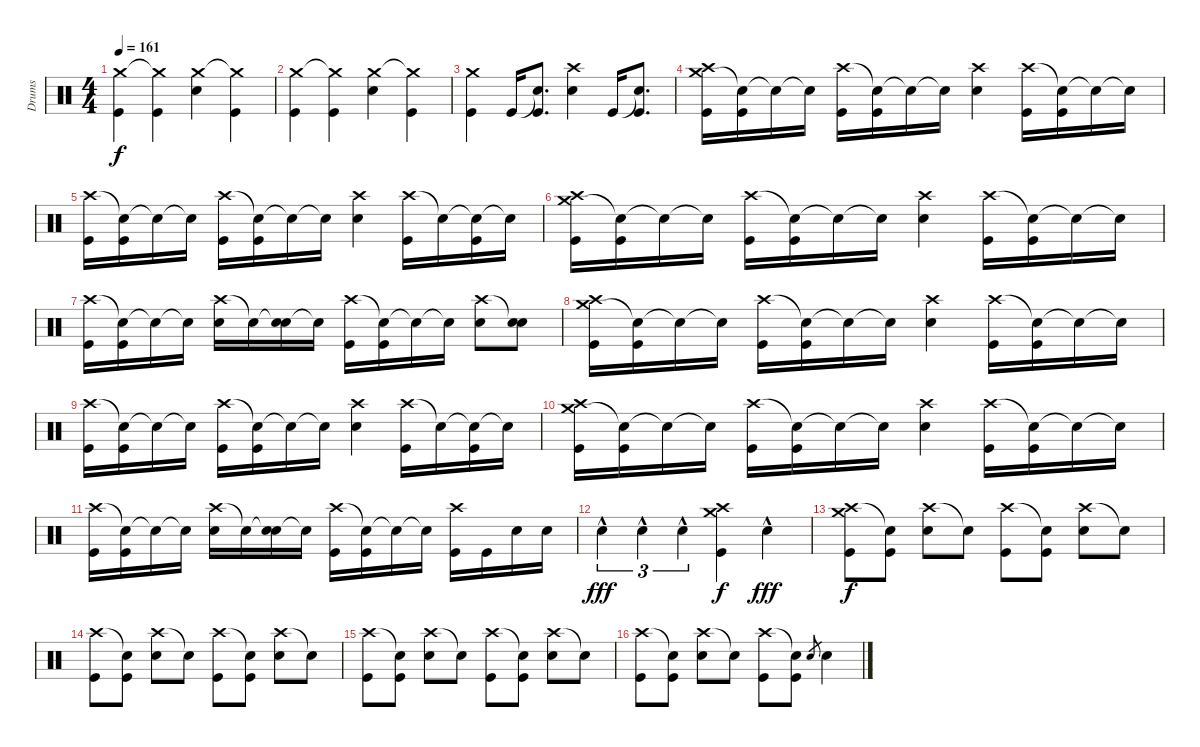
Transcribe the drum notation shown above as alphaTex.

\track ("Drums" "Drums") {instrument percussion}
\staff {score}
\articulation defaults
\ts (4 4)
\tempo 161
\clef neutral
\ks c
("Crash medium (hit)" "Kick (hit)").4{dy f} ("Crash medium (hit)"{t} "Kick (hit)").4 ("Crash medium (hit)" "Snare (hit) 2").4 ("Crash medium (hit)"{t} "Kick (hit)").4 |
("Crash medium (hit)" "Kick (hit)").4 ("Crash medium (hit)"{t} "Kick (hit)").4 ("Crash medium (hit)" "Snare (hit) 2").4 ("Crash medium (hit)"{t} "Kick (hit)").4 |
("Crash medium (hit)" "Kick (hit)").4 "Kick (hit)".16 ("Snare (hit)"{t} "Kick (hit)").8{d} ("Crash high (hit)" "Snare (hit) 2").4 "Kick (hit)".16 ("Snare (hit)"{t} "Kick (hit)").8{d} |
("Crash medium (hit)" "Crash high (hit)" "Kick (hit)").16 ("Snare (hit)"{t} "Kick (hit)").16 "Snare (hit)"{t}.16 "Snare (hit)"{t}.16 ("Crash high (hit)" "Kick (hit)").16 ("Snare (hit)"{t} "Kick (hit)").16 "Snare (hit)"{t}.16 "Snare (hit)"{t}.16 ("Crash high (hit)" "Snare (hit) 2").4 ("Crash high (hit)" "Kick (hit)").16 ("Snare (hit)"{t} "Kick (hit)").16 "Snare (hit)"{t}.16 "Snare (hit)"{t}.16 |
("Crash high (hit)" "Kick (hit)").16 ("Snare (hit)"{t} "Kick (hit)").16 "Snare (hit)"{t}.16 "Snare (hit)"{t}.16 ("Crash high (hit)" "Kick (hit)").16 ("Snare (hit)"{t} "Kick (hit)").16 "Snare (hit)"{t}.16 "Snare (hit)"{t}.16 ("Crash high (hit)" "Snare (hit) 2").4 ("Crash high (hit)" "Kick (hit)").16 "Snare (hit)"{t}.16 ("Snare (hit)"{t} "Kick (hit)").16 "Snare (hit)"{t}.16 |
("Crash medium (hit)" "Crash high (hit)" "Kick (hit)").16 ("Snare (hit)"{t} "Kick (hit)").16 "Snare (hit)"{t}.16 "Snare (hit)"{t}.16 ("Crash high (hit)" "Kick (hit)").16 ("Snare (hit)"{t} "Kick (hit)").16 "Snare (hit)"{t}.16 "Snare (hit)"{t}.16 ("Crash high (hit)" "Snare (hit) 2").4 ("Crash high (hit)" "Kick (hit)").16 ("Snare (hit)"{t} "Kick (hit)").16 "Snare (hit)"{t}.16 "Snare (hit)"{t}.16 |
("Crash high (hit)" "Kick (hit)").16 ("Snare (hit)"{t} "Kick (hit)").16 "Snare (hit)"{t}.16 "Snare (hit)"{t}.16 ("Crash high (hit)" "Snare (hit) 2").16 "Snare (hit)"{t}.16 ("Snare (hit)"{t} "Snare (hit) 2").16 "Snare (hit)"{t}.16 ("Crash high (hit)" "Kick (hit)").16 ("Snare (hit)"{t} "Kick (hit)").16 "Snare (hit)"{t}.16 "Snare (hit)"{t}.16 ("Crash high (hit)" "Snare (hit) 2").8 ("Snare (hit)"{t} "Snare (hit) 2").8 |
("Crash medium (hit)" "Crash high (hit)" "Kick (hit)").16 ("Snare (hit)"{t} "Kick (hit)").16 "Snare (hit)"{t}.16 "Snare (hit)"{t}.16 ("Crash high (hit)" "Kick (hit)").16 ("Snare (hit)"{t} "Kick (hit)").16 "Snare (hit)"{t}.16 "Snare (hit)"{t}.16 ("Crash high (hit)" "Snare (hit) 2").4 ("Crash high (hit)" "Kick (hit)").16 ("Snare (hit)"{t} "Kick (hit)").16 "Snare (hit)"{t}.16 "Snare (hit)"{t}.16 |
("Crash high (hit)" "Kick (hit)").16 ("Snare (hit)"{t} "Kick (hit)").16 "Snare (hit)"{t}.16 "Snare (hit)"{t}.16 ("Crash high (hit)" "Kick (hit)").16 ("Snare (hit)"{t} "Kick (hit)").16 "Snare (hit)"{t}.16 "Snare (hit)"{t}.16 ("Crash high (hit)" "Snare (hit) 2").4 ("Crash high (hit)" "Kick (hit)").16 "Snare (hit)"{t}.16 ("Snare (hit)"{t} "Kick (hit)").16 "Snare (hit)"{t}.16 |
("Crash medium (hit)" "Crash high (hit)" "Kick (hit)").16 ("Snare (hit)"{t} "Kick (hit)").16 "Snare (hit)"{t}.16 "Snare (hit)"{t}.16 ("Crash high (hit)" "Kick (hit)").16 ("Snare (hit)"{t} "Kick (hit)").16 "Snare (hit)"{t}.16 "Snare (hit)"{t}.16 ("Crash high (hit)" "Snare (hit) 2").4 ("Crash high (hit)" "Kick (hit)").16 ("Snare (hit)"{t} "Kick (hit)").16 "Snare (hit)"{t}.16 "Snare (hit)"{t}.16 |
("Crash high (hit)" "Kick (hit)").16 ("Snare (hit)"{t} "Kick (hit)").16 "Snare (hit)"{t}.16 "Snare (hit)"{t}.16 ("Crash high (hit)" "Snare (hit) 2").16 "Snare (hit)"{t}.16 ("Snare (hit)"{t} "Snare (hit) 2").16 "Snare (hit)"{t}.16 ("Crash high (hit)" "Kick (hit)").16 ("Snare (hit)"{t} "Kick (hit)").16 "Snare (hit)"{t}.16 "Snare (hit)"{t}.16 ("Crash high (hit)" "Kick (hit)").16 "Kick (hit)".16 "Snare (hit) 2".16 "Snare (hit) 2".16 |
"Snare (hit) 2"{hac}.4{tu (3 2) dy fff} "Snare (hit) 2"{hac}.4{tu (3 2)} "Snare (hit) 2"{hac}.4{tu (3 2)} ("Crash medium (hit)" "Crash high (hit)" "Kick (hit)").4{dy f} "Snare (hit) 2"{hac}.4{dy fff} |
("Crash high (hit)" "Crash medium (hit)" "Kick (hit)").8{dy f} ("Snare (hit)"{t} "Kick (hit)").8 ("Crash high (hit)" "Snare (hit) 2").8 "Snare (hit)"{t}.8 ("Crash high (hit)" "Kick (hit)").8 ("Snare (hit)"{t} "Kick (hit)").8 ("Crash high (hit)" "Snare (hit) 2").8 "Snare (hit)"{t}.8 |
("Crash high (hit)" "Kick (hit)").8 ("Snare (hit)"{t} "Kick (hit)").8 ("Crash high (hit)" "Snare (hit) 2").8 "Snare (hit)"{t}.8 ("Crash high (hit)" "Kick (hit)").8 ("Snare (hit)"{t} "Kick (hit)").8 ("Crash high (hit)" "Snare (hit) 2").8 "Snare (hit)"{t}.8 |
("Crash high (hit)" "Kick (hit)").8 ("Snare (hit)"{t} "Kick (hit)").8 ("Crash high (hit)" "Snare (hit) 2").8 "Snare (hit)"{t}.8 ("Crash high (hit)" "Kick (hit)").8 ("Snare (hit)"{t} "Kick (hit)").8 ("Crash high (hit)" "Snare (hit) 2").8 "Snare (hit)"{t}.8 |
("Crash high (hit)" "Kick (hit)").8 ("Snare (hit)"{t} "Kick (hit)").8 ("Crash high (hit)" "Snare (hit) 2").8 "Snare (hit)"{t}.8 ("Crash high (hit)" "Kick (hit)").8 ("Snare (hit)"{t} "Kick (hit)").8 "Snare (hit) 2".8{gr} "Snare (hit) 2".4
